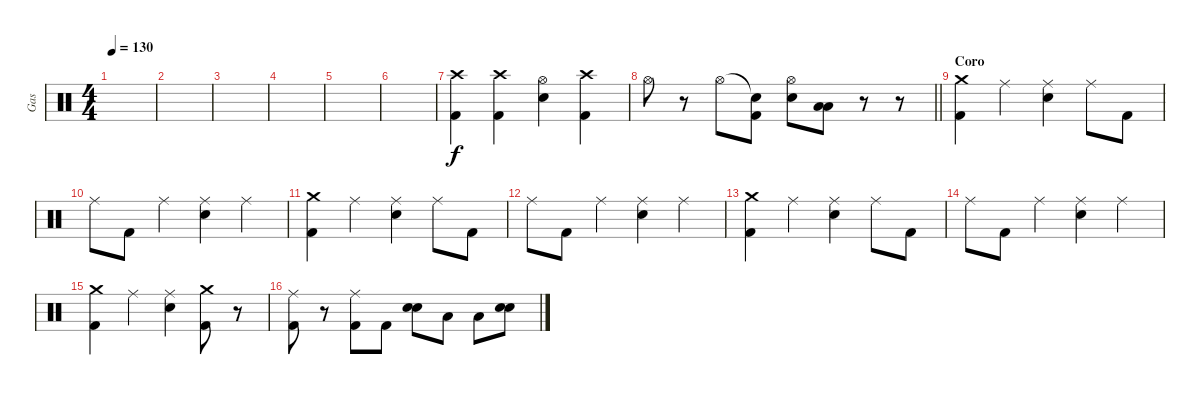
\track ("Gas" "Gas") {instrument percussion}
\staff {score}
\articulation defaults
\ts (4 4)
\tempo 130
\clef neutral
\ks c
|
|
|
|
|
|
("Crash high (hit)" "Kick (hit) 2").4 ("Crash high (hit)" "Kick (hit) 2").4 ("Hi-Hat (open)" "Electric Snare (hit)").4 ("Crash high (hit)" "Kick (hit) 2").4 |
\barLineRight lightlight "Hi-Hat (open)".8
r.8 "Hi-Hat (open)".8 ("Snare (hit)"{t} "Kick (hit) 2").8 ("Hi-Hat (open)" "Electric Snare (hit)").8 ("Low Tom (hit)" "Low Tom (hit)").8{bd 60} r.8 r.8 |
\section ("" "Coro")
("Crash medium (hit)" "Kick (hit) 2").4 "Ride (middle)".4 ("Ride (middle)" "Electric Snare (hit)").4 "Ride (middle)".8 "Kick (hit) 2".8 |
"Ride (middle)".8 "Kick (hit) 2".8 "Ride (middle)".4 ("Ride (middle)" "Electric Snare (hit)").4 "Ride (middle)".4 |
("Crash medium (hit)" "Kick (hit) 2").4 "Ride (middle)".4 ("Ride (middle)" "Electric Snare (hit)").4 "Ride (middle)".8 "Kick (hit) 2".8 |
"Ride (middle)".8 "Kick (hit) 2".8 "Ride (middle)".4 ("Ride (middle)" "Electric Snare (hit)").4 "Ride (middle)".4 |
("Crash medium (hit)" "Kick (hit) 2").4 "Ride (middle)".4 ("Ride (middle)" "Electric Snare (hit)").4 "Ride (middle)".8 "Kick (hit) 2".8 |
"Ride (middle)".8 "Kick (hit) 2".8 "Ride (middle)".4 ("Ride (middle)" "Electric Snare (hit)").4 "Ride (middle)".4 |
("Crash medium (hit)" "Kick (hit) 2").4 "Ride (middle)".4 ("Ride (middle)" "Electric Snare (hit)").4 ("Crash medium (hit)" "Kick (hit) 2").8 r.8 |
("Ride (middle)" "Kick (hit) 2").8 r.8 ("Ride (middle)" "Kick (hit) 2").8 "Kick (hit) 2".8 ("Electric Snare (hit)" "Electric Snare (hit)").8{bd 60} "Low Tom (hit)".8 "Low Tom (hit)".8 ("Electric Snare (hit)" "Electric Snare (hit)").8{bd 60}
